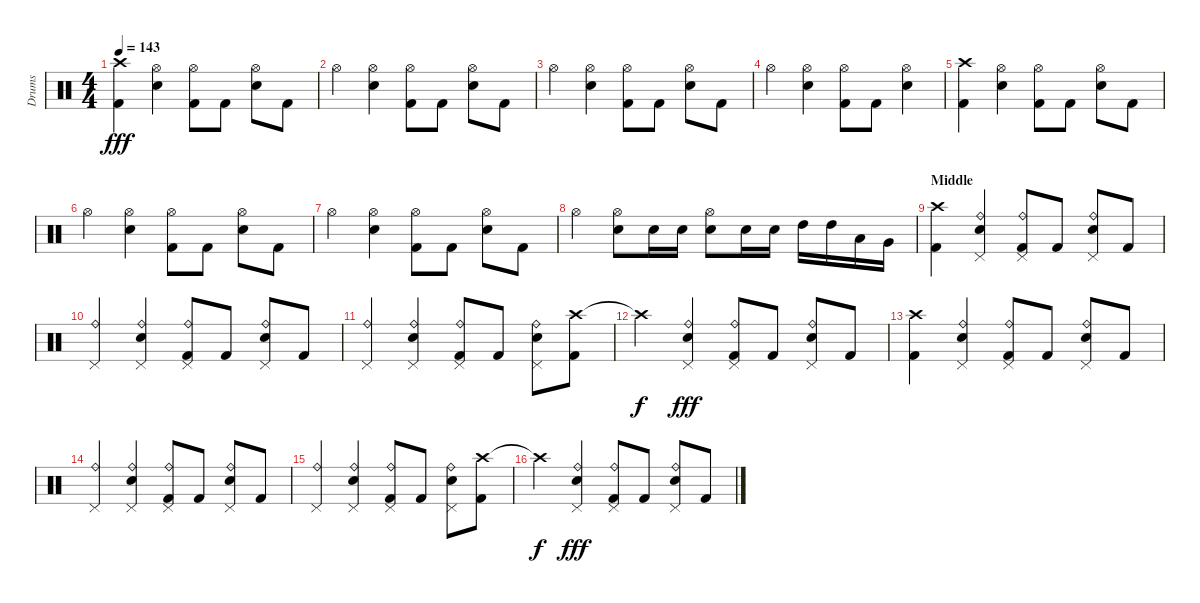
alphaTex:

\track ("Drums" "Drums") {instrument percussion}
\staff {score}
\articulation defaults
\ts (4 4)
\tempo 143
\clef neutral
\ks c
("Crash high (hit)" "Kick (hit) 2").4{dy fff} ("Hi-Hat (open)" "Snare (hit) 2").4 ("Hi-Hat (open)" "Kick (hit) 2").8 "Kick (hit) 2".8 ("Hi-Hat (open)" "Snare (hit) 2").8 "Kick (hit) 2".8 |
"Hi-Hat (open)".4 ("Hi-Hat (open)" "Snare (hit) 2").4 ("Hi-Hat (open)" "Kick (hit) 2").8 "Kick (hit) 2".8 ("Hi-Hat (open)" "Snare (hit) 2").8 "Kick (hit) 2".8 |
"Hi-Hat (open)".4 ("Hi-Hat (open)" "Snare (hit) 2").4 ("Hi-Hat (open)" "Kick (hit) 2").8 "Kick (hit) 2".8 ("Hi-Hat (open)" "Snare (hit) 2").8 "Kick (hit) 2".8 |
"Hi-Hat (open)".4 ("Hi-Hat (open)" "Snare (hit) 2").4 ("Hi-Hat (open)" "Kick (hit) 2").8 "Kick (hit) 2".8 ("Hi-Hat (open)" "Snare (hit) 2").4 |
("Crash high (hit)" "Kick (hit) 2").4 ("Hi-Hat (open)" "Snare (hit) 2").4 ("Hi-Hat (open)" "Kick (hit) 2").8 "Kick (hit) 2".8 ("Hi-Hat (open)" "Snare (hit) 2").8 "Kick (hit) 2".8 |
"Hi-Hat (open)".4 ("Hi-Hat (open)" "Snare (hit) 2").4 ("Hi-Hat (open)" "Kick (hit) 2").8 "Kick (hit) 2".8 ("Hi-Hat (open)" "Snare (hit) 2").8 "Kick (hit) 2".8 |
"Hi-Hat (open)".4 ("Hi-Hat (open)" "Snare (hit) 2").4 ("Hi-Hat (open)" "Kick (hit) 2").8 "Kick (hit) 2".8 ("Hi-Hat (open)" "Snare (hit) 2").8 "Kick (hit) 2".8 |
"Hi-Hat (open)".4 ("Hi-Hat (open)" "Snare (hit) 2").8 "Snare (hit) 2".16 "Snare (hit) 2".16 ("Hi-Hat (open)" "Snare (hit) 2").8 "Snare (hit) 2".16 "Snare (hit) 2".16 "High Tom (hit)".16 "High Tom (hit)".16 "Low Tom (hit)".16 "Very Low Tom (hit)".16 |
\section ("" "Middle")
("Crash high (hit)" "Kick (hit) 2").4 ("Ride (bell)" "Pedal Hi-Hat (hit)" "Snare (hit) 2").4 ("Ride (bell)" "Pedal Hi-Hat (hit)" "Kick (hit) 2").8 "Kick (hit) 2".8 ("Ride (bell)" "Pedal Hi-Hat (hit)" "Snare (hit) 2").8 "Kick (hit) 2".8 |
("Ride (bell)" "Pedal Hi-Hat (hit)").4 ("Ride (bell)" "Pedal Hi-Hat (hit)" "Snare (hit) 2").4 ("Ride (bell)" "Pedal Hi-Hat (hit)" "Kick (hit) 2").8 "Kick (hit) 2".8 ("Ride (bell)" "Pedal Hi-Hat (hit)" "Snare (hit) 2").8 "Kick (hit) 2".8 |
("Ride (bell)" "Pedal Hi-Hat (hit)").4 ("Ride (bell)" "Pedal Hi-Hat (hit)" "Snare (hit) 2").4 ("Ride (bell)" "Pedal Hi-Hat (hit)" "Kick (hit) 2").8 "Kick (hit) 2".8 ("Ride (bell)" "Pedal Hi-Hat (hit)" "Snare (hit) 2").8 ("Crash high (hit)" "Kick (hit) 2").8 |
"Crash high (hit)"{t}.4{dy f} ("Ride (bell)" "Pedal Hi-Hat (hit)" "Snare (hit) 2").4{dy fff} ("Ride (bell)" "Pedal Hi-Hat (hit)" "Kick (hit) 2").8 "Kick (hit) 2".8 ("Ride (bell)" "Pedal Hi-Hat (hit)" "Snare (hit) 2").8 "Kick (hit) 2".8 |
("Crash high (hit)" "Kick (hit) 2").4 ("Ride (bell)" "Pedal Hi-Hat (hit)" "Snare (hit) 2").4 ("Ride (bell)" "Pedal Hi-Hat (hit)" "Kick (hit) 2").8 "Kick (hit) 2".8 ("Ride (bell)" "Pedal Hi-Hat (hit)" "Snare (hit) 2").8 "Kick (hit) 2".8 |
("Ride (bell)" "Pedal Hi-Hat (hit)").4 ("Ride (bell)" "Pedal Hi-Hat (hit)" "Snare (hit) 2").4 ("Ride (bell)" "Pedal Hi-Hat (hit)" "Kick (hit) 2").8 "Kick (hit) 2".8 ("Ride (bell)" "Pedal Hi-Hat (hit)" "Snare (hit) 2").8 "Kick (hit) 2".8 |
("Ride (bell)" "Pedal Hi-Hat (hit)").4 ("Ride (bell)" "Pedal Hi-Hat (hit)" "Snare (hit) 2").4 ("Ride (bell)" "Pedal Hi-Hat (hit)" "Kick (hit) 2").8 "Kick (hit) 2".8 ("Ride (bell)" "Pedal Hi-Hat (hit)" "Snare (hit) 2").8 ("Crash high (hit)" "Kick (hit) 2").8 |
"Crash high (hit)"{t}.4{dy f} ("Ride (bell)" "Pedal Hi-Hat (hit)" "Snare (hit) 2").4{dy fff} ("Ride (bell)" "Pedal Hi-Hat (hit)" "Kick (hit) 2").8 "Kick (hit) 2".8 ("Ride (bell)" "Pedal Hi-Hat (hit)" "Snare (hit) 2").8 "Kick (hit) 2".8
